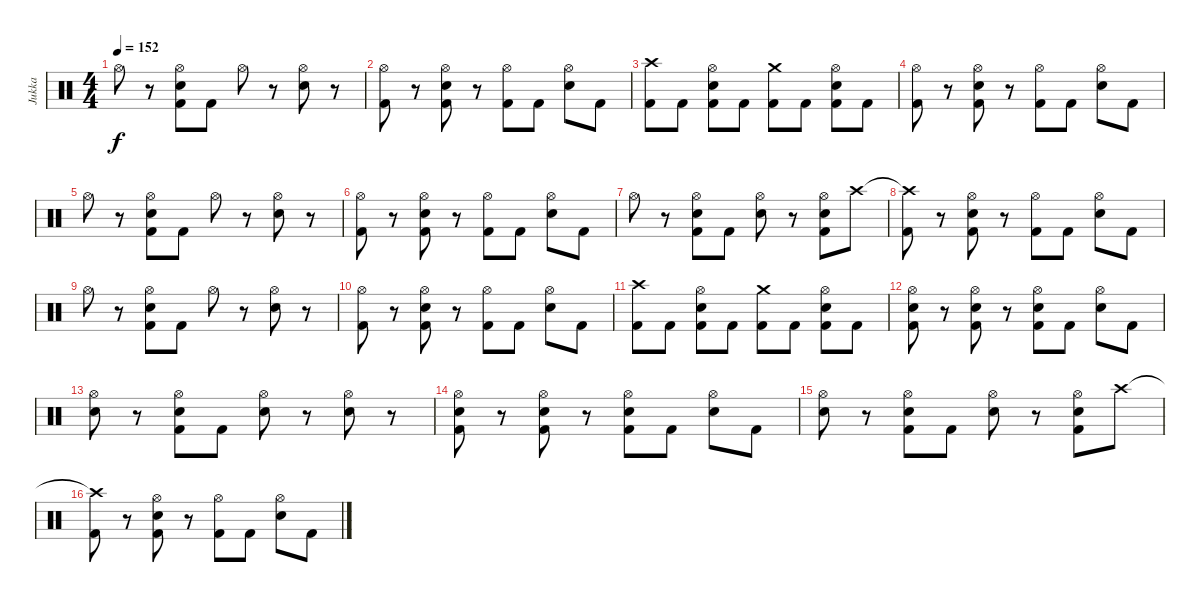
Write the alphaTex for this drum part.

\track ("Jukka" "Jukka") {instrument percussion}
\staff {score}
\articulation defaults
\ts (4 4)
\tempo 152
\clef neutral
\ks c "Hi-Hat (open)".8{dy f}
r.8 ("Hi-Hat (open)" "Electric Snare (hit)" "Kick (hit) 2").8 "Kick (hit) 2".8 "Hi-Hat (open)".8 r.8 ("Hi-Hat (open)" "Electric Snare (hit)").8 r.8 |
("Hi-Hat (open)" "Kick (hit) 2").8 r.8 ("Hi-Hat (open)" "Electric Snare (hit)" "Kick (hit) 2").8 r.8 ("Hi-Hat (open)" "Kick (hit) 2").8 "Kick (hit) 2".8 ("Hi-Hat (open)" "Electric Snare (hit)").8 "Kick (hit) 2".8 |
("Crash high (hit)" "Kick (hit) 2").8 "Kick (hit) 2".8 ("Hi-Hat (open)" "Electric Snare (hit)" "Kick (hit) 2").8 "Kick (hit) 2".8 ("Crash medium (hit)" "Kick (hit) 2").8 "Kick (hit) 2".8 ("Hi-Hat (open)" "Electric Snare (hit)" "Kick (hit) 2").8 "Kick (hit) 2".8 |
("Hi-Hat (open)" "Kick (hit) 2").8 r.8 ("Hi-Hat (open)" "Electric Snare (hit)" "Kick (hit) 2").8 r.8 ("Hi-Hat (open)" "Kick (hit) 2").8 "Kick (hit) 2".8 ("Hi-Hat (open)" "Electric Snare (hit)").8 "Kick (hit) 2".8 |
"Hi-Hat (open)".8 r.8 ("Hi-Hat (open)" "Electric Snare (hit)" "Kick (hit) 2").8 "Kick (hit) 2".8 "Hi-Hat (open)".8 r.8 ("Hi-Hat (open)" "Electric Snare (hit)").8 r.8 |
("Hi-Hat (open)" "Kick (hit) 2").8 r.8 ("Hi-Hat (open)" "Electric Snare (hit)" "Kick (hit) 2").8 r.8 ("Hi-Hat (open)" "Kick (hit) 2").8 "Kick (hit) 2".8 ("Hi-Hat (open)" "Electric Snare (hit)").8 "Kick (hit) 2".8 |
"Hi-Hat (open)".8 r.8 ("Hi-Hat (open)" "Electric Snare (hit)" "Kick (hit) 2").8 "Kick (hit) 2".8 ("Hi-Hat (open)" "Electric Snare (hit)").8 r.8 ("Hi-Hat (open)" "Electric Snare (hit)" "Kick (hit) 2").8 "Crash high (hit)".8 |
("Crash high (hit)"{t} "Kick (hit) 2").8 r.8 ("Hi-Hat (open)" "Electric Snare (hit)" "Kick (hit) 2").8 r.8 ("Hi-Hat (open)" "Kick (hit) 2").8 "Kick (hit) 2".8 ("Hi-Hat (open)" "Electric Snare (hit)").8 "Kick (hit) 2".8 |
"Hi-Hat (open)".8 r.8 ("Hi-Hat (open)" "Electric Snare (hit)" "Kick (hit) 2").8 "Kick (hit) 2".8 "Hi-Hat (open)".8 r.8 ("Hi-Hat (open)" "Electric Snare (hit)").8 r.8 |
("Hi-Hat (open)" "Kick (hit) 2").8 r.8 ("Hi-Hat (open)" "Electric Snare (hit)" "Kick (hit) 2").8 r.8 ("Hi-Hat (open)" "Kick (hit) 2").8 "Kick (hit) 2".8 ("Hi-Hat (open)" "Electric Snare (hit)").8 "Kick (hit) 2".8 |
("Crash high (hit)" "Kick (hit) 2").8 "Kick (hit) 2".8 ("Hi-Hat (open)" "Electric Snare (hit)" "Kick (hit) 2").8 "Kick (hit) 2".8 ("Crash medium (hit)" "Kick (hit) 2").8 "Kick (hit) 2".8 ("Hi-Hat (open)" "Electric Snare (hit)" "Kick (hit) 2").8 "Kick (hit) 2".8 |
("Hi-Hat (open)" "Electric Snare (hit)" "Kick (hit) 2").8 r.8 ("Hi-Hat (open)" "Electric Snare (hit)" "Kick (hit) 2").8 r.8 ("Hi-Hat (open)" "Electric Snare (hit)" "Kick (hit) 2").8 "Kick (hit) 2".8 ("Hi-Hat (open)" "Electric Snare (hit)").8 "Kick (hit) 2".8 |
("Hi-Hat (open)" "Electric Snare (hit)").8 r.8 ("Hi-Hat (open)" "Electric Snare (hit)" "Kick (hit) 2").8 "Kick (hit) 2".8 ("Hi-Hat (open)" "Electric Snare (hit)").8 r.8 ("Hi-Hat (open)" "Electric Snare (hit)").8 r.8 |
("Hi-Hat (open)" "Electric Snare (hit)" "Kick (hit) 2").8 r.8 ("Hi-Hat (open)" "Electric Snare (hit)" "Kick (hit) 2").8 r.8 ("Hi-Hat (open)" "Electric Snare (hit)" "Kick (hit) 2").8 "Kick (hit) 2".8 ("Hi-Hat (open)" "Electric Snare (hit)").8 "Kick (hit) 2".8 |
("Hi-Hat (open)" "Electric Snare (hit)").8 r.8 ("Hi-Hat (open)" "Electric Snare (hit)" "Kick (hit) 2").8 "Kick (hit) 2".8 ("Hi-Hat (open)" "Electric Snare (hit)").8 r.8 ("Hi-Hat (open)" "Electric Snare (hit)" "Kick (hit) 2").8 "Crash high (hit)".8 |
("Crash high (hit)"{t} "Kick (hit) 2").8 r.8 ("Hi-Hat (open)" "Electric Snare (hit)" "Kick (hit) 2").8 r.8 ("Hi-Hat (open)" "Kick (hit) 2").8 "Kick (hit) 2".8 ("Hi-Hat (open)" "Electric Snare (hit)").8 "Kick (hit) 2".8
